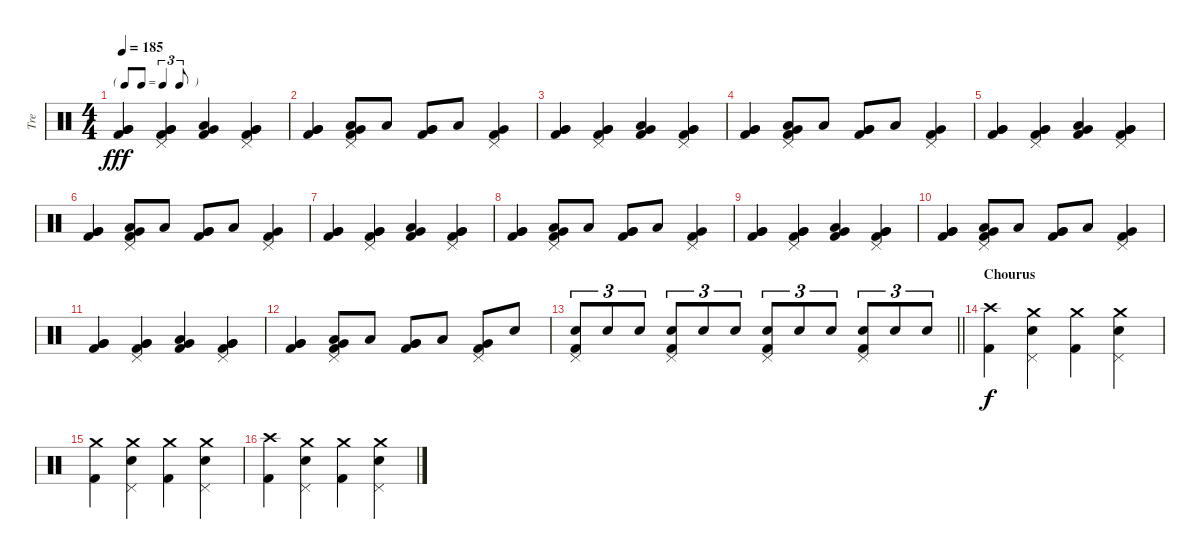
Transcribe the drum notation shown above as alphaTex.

\track ("Tre" "Tre") {instrument percussion}
\staff {score}
\articulation defaults
\ts (4 4)
\tf triplet8th
\tempo 185
\clef neutral
\ks c
("Very Low Tom (hit)" "Very Low Tom (hit)" "Kick (hit) 2").4{dy fff} ("Pedal Hi-Hat (hit)" "Very Low Tom (hit)" "Very Low Tom (hit)" "Kick (hit) 2").4 ("Low Tom (hit)" "Very Low Tom (hit)" "Kick (hit) 2").4 ("Pedal Hi-Hat (hit)" "Very Low Tom (hit)" "Very Low Tom (hit)" "Kick (hit) 2").4 |
("Very Low Tom (hit)" "Very Low Tom (hit)" "Kick (hit) 2").4 ("Pedal Hi-Hat (hit)" "Low Tom (hit)" "Very Low Tom (hit)" "Kick (hit) 2").8 "Low Tom (hit)".8 ("Very Low Tom (hit)" "Very Low Tom (hit)" "Kick (hit) 2").8 "Low Tom (hit)".8 ("Pedal Hi-Hat (hit)" "Very Low Tom (hit)" "Kick (hit) 2").4 |
("Very Low Tom (hit)" "Very Low Tom (hit)" "Kick (hit) 2").4 ("Pedal Hi-Hat (hit)" "Very Low Tom (hit)" "Very Low Tom (hit)" "Kick (hit) 2").4 ("Low Tom (hit)" "Very Low Tom (hit)" "Kick (hit) 2").4 ("Pedal Hi-Hat (hit)" "Very Low Tom (hit)" "Very Low Tom (hit)" "Kick (hit) 2").4 |
("Very Low Tom (hit)" "Very Low Tom (hit)" "Kick (hit) 2").4 ("Pedal Hi-Hat (hit)" "Low Tom (hit)" "Very Low Tom (hit)" "Kick (hit) 2").8 "Low Tom (hit)".8 ("Very Low Tom (hit)" "Very Low Tom (hit)" "Kick (hit) 2").8 "Low Tom (hit)".8 ("Pedal Hi-Hat (hit)" "Very Low Tom (hit)" "Kick (hit) 2").4 |
("Very Low Tom (hit)" "Very Low Tom (hit)" "Kick (hit) 2").4 ("Pedal Hi-Hat (hit)" "Very Low Tom (hit)" "Very Low Tom (hit)" "Kick (hit) 2").4 ("Low Tom (hit)" "Very Low Tom (hit)" "Kick (hit) 2").4 ("Pedal Hi-Hat (hit)" "Very Low Tom (hit)" "Very Low Tom (hit)" "Kick (hit) 2").4 |
("Very Low Tom (hit)" "Very Low Tom (hit)" "Kick (hit) 2").4 ("Pedal Hi-Hat (hit)" "Low Tom (hit)" "Very Low Tom (hit)" "Kick (hit) 2").8 "Low Tom (hit)".8 ("Very Low Tom (hit)" "Very Low Tom (hit)" "Kick (hit) 2").8 "Low Tom (hit)".8 ("Pedal Hi-Hat (hit)" "Very Low Tom (hit)" "Kick (hit) 2").4 |
("Very Low Tom (hit)" "Very Low Tom (hit)" "Kick (hit) 2").4 ("Pedal Hi-Hat (hit)" "Very Low Tom (hit)" "Very Low Tom (hit)" "Kick (hit) 2").4 ("Low Tom (hit)" "Very Low Tom (hit)" "Kick (hit) 2").4 ("Pedal Hi-Hat (hit)" "Very Low Tom (hit)" "Very Low Tom (hit)" "Kick (hit) 2").4 |
("Very Low Tom (hit)" "Very Low Tom (hit)" "Kick (hit) 2").4 ("Pedal Hi-Hat (hit)" "Low Tom (hit)" "Very Low Tom (hit)" "Kick (hit) 2").8 "Low Tom (hit)".8 ("Very Low Tom (hit)" "Very Low Tom (hit)" "Kick (hit) 2").8 "Low Tom (hit)".8 ("Pedal Hi-Hat (hit)" "Very Low Tom (hit)" "Kick (hit) 2").4 |
("Very Low Tom (hit)" "Very Low Tom (hit)" "Kick (hit) 2").4 ("Pedal Hi-Hat (hit)" "Very Low Tom (hit)" "Very Low Tom (hit)" "Kick (hit) 2").4 ("Low Tom (hit)" "Very Low Tom (hit)" "Kick (hit) 2").4 ("Pedal Hi-Hat (hit)" "Very Low Tom (hit)" "Very Low Tom (hit)" "Kick (hit) 2").4 |
("Very Low Tom (hit)" "Very Low Tom (hit)" "Kick (hit) 2").4 ("Pedal Hi-Hat (hit)" "Low Tom (hit)" "Very Low Tom (hit)" "Kick (hit) 2").8 "Low Tom (hit)".8 ("Very Low Tom (hit)" "Very Low Tom (hit)" "Kick (hit) 2").8 "Low Tom (hit)".8 ("Pedal Hi-Hat (hit)" "Very Low Tom (hit)" "Kick (hit) 2").4 |
("Very Low Tom (hit)" "Very Low Tom (hit)" "Kick (hit) 2").4 ("Pedal Hi-Hat (hit)" "Very Low Tom (hit)" "Very Low Tom (hit)" "Kick (hit) 2").4 ("Low Tom (hit)" "Very Low Tom (hit)" "Kick (hit) 2").4 ("Pedal Hi-Hat (hit)" "Very Low Tom (hit)" "Very Low Tom (hit)" "Kick (hit) 2").4 |
("Very Low Tom (hit)" "Very Low Tom (hit)" "Kick (hit) 2").4 ("Pedal Hi-Hat (hit)" "Low Tom (hit)" "Very Low Tom (hit)" "Kick (hit) 2").8 "Low Tom (hit)".8 ("Very Low Tom (hit)" "Very Low Tom (hit)" "Kick (hit) 2").8 "Low Tom (hit)".8 ("Pedal Hi-Hat (hit)" "Very Low Tom (hit)" "Kick (hit) 2").8 "Snare (hit) 2".8 |
\barLineRight lightlight
("Snare (hit) 2" "Pedal Hi-Hat (hit)" "Kick (hit) 2").8{tu (3 2)} "Snare (hit) 2".8{tu (3 2)} "Snare (hit) 2".8{tu (3 2)} ("Snare (hit) 2" "Pedal Hi-Hat (hit)" "Kick (hit) 2").8{tu (3 2)} "Snare (hit) 2".8{tu (3 2)} "Snare (hit) 2".8{tu (3 2)} ("Snare (hit) 2" "Pedal Hi-Hat (hit)" "Kick (hit) 2").8{tu (3 2)} "Snare (hit) 2".8{tu (3 2)} "Snare (hit) 2".8{tu (3 2)} ("Snare (hit) 2" "Pedal Hi-Hat (hit)" "Kick (hit) 2").8{tu (3 2)} "Snare (hit) 2".8{tu (3 2)} "Snare (hit) 2".8{tu (3 2)} |
\section ("" "Chourus")
("Crash high (hit)" "Kick (hit) 2").4{dy f} ("Crash medium (hit)" "Snare (hit) 2" "Pedal Hi-Hat (hit)").4 ("Crash medium (hit)" "Kick (hit) 2").4 ("Crash medium (hit)" "Snare (hit) 2" "Pedal Hi-Hat (hit)").4 |
("Crash medium (hit)" "Kick (hit) 2").4 ("Crash medium (hit)" "Snare (hit) 2" "Pedal Hi-Hat (hit)").4 ("Crash medium (hit)" "Kick (hit) 2").4 ("Crash medium (hit)" "Snare (hit) 2" "Pedal Hi-Hat (hit)").4 |
("Crash high (hit)" "Kick (hit) 2").4 ("Crash medium (hit)" "Snare (hit) 2" "Pedal Hi-Hat (hit)").4 ("Crash medium (hit)" "Kick (hit) 2").4 ("Crash medium (hit)" "Snare (hit) 2" "Pedal Hi-Hat (hit)").4
